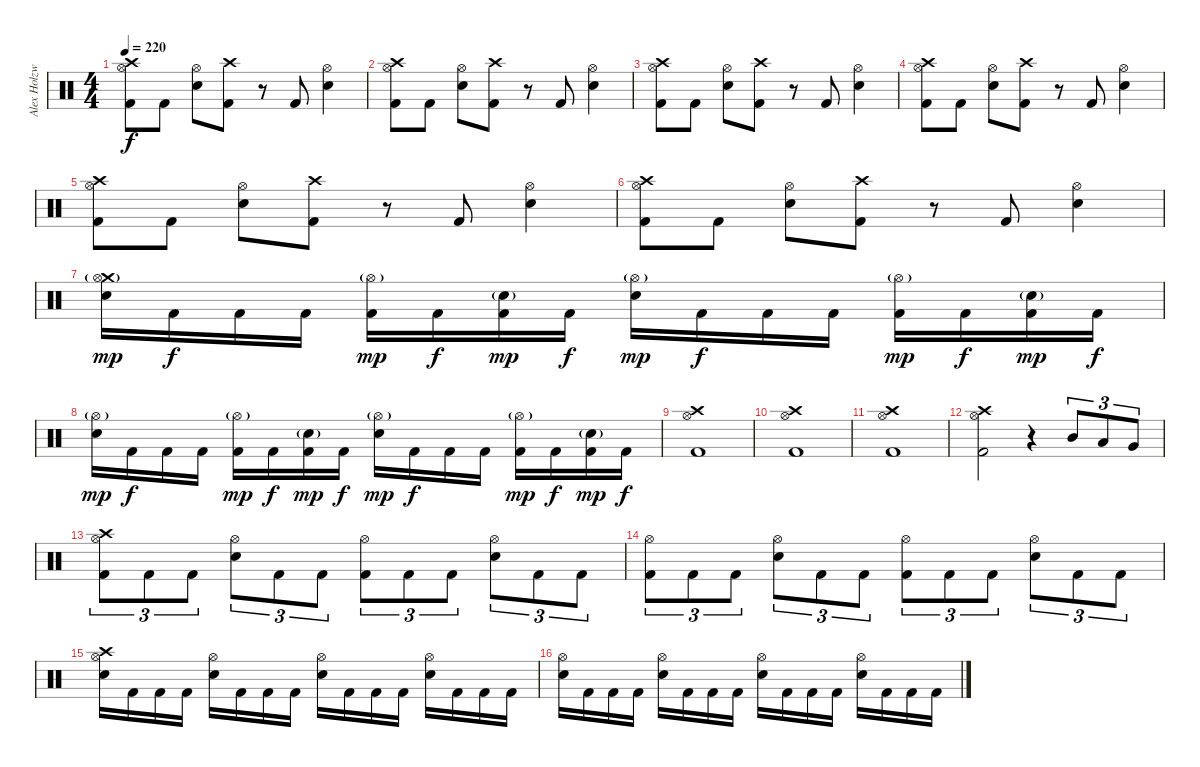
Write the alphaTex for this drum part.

\track ("Alex Holzwarth" "Alex Holzw") {instrument percussion}
\staff {score}
\articulation defaults
\ts (4 4)
\tempo 220
\clef neutral
\ks c
("Crash high (hit)" "Hi-Hat (open)" "Kick (hit) 2").8{dy f} "Kick (hit) 2".8 ("Hi-Hat (open)" "Electric Snare (hit)").8 ("Crash high (hit)" "Kick (hit) 2").8 r.8 "Kick (hit) 2".8 ("Hi-Hat (open)" "Electric Snare (hit)").4 |
("Crash high (hit)" "Hi-Hat (open)" "Kick (hit) 2").8 "Kick (hit) 2".8 ("Hi-Hat (open)" "Electric Snare (hit)").8 ("Crash high (hit)" "Kick (hit) 2").8 r.8 "Kick (hit) 2".8 ("Hi-Hat (open)" "Electric Snare (hit)").4 |
("Crash high (hit)" "Hi-Hat (open)" "Kick (hit) 2").8 "Kick (hit) 2".8 ("Hi-Hat (open)" "Electric Snare (hit)").8 ("Crash high (hit)" "Kick (hit) 2").8 r.8 "Kick (hit) 2".8 ("Hi-Hat (open)" "Electric Snare (hit)").4 |
("Crash high (hit)" "Hi-Hat (open)" "Kick (hit) 2").8 "Kick (hit) 2".8 ("Hi-Hat (open)" "Electric Snare (hit)").8 ("Crash high (hit)" "Kick (hit) 2").8 r.8 "Kick (hit) 2".8 ("Hi-Hat (open)" "Electric Snare (hit)").4 |
("Crash high (hit)" "Hi-Hat (open)" "Kick (hit) 2").8 "Kick (hit) 2".8 ("Hi-Hat (open)" "Electric Snare (hit)").8 ("Crash high (hit)" "Kick (hit) 2").8 r.8 "Kick (hit) 2".8 ("Hi-Hat (open)" "Electric Snare (hit)").4 |
("Crash high (hit)" "Hi-Hat (open)" "Kick (hit) 2").8 "Kick (hit) 2".8 ("Hi-Hat (open)" "Electric Snare (hit)").8 ("Crash high (hit)" "Kick (hit) 2").8 r.8 "Kick (hit) 2".8 ("Hi-Hat (open)" "Electric Snare (hit)").4 |
("Crash medium (hit)" "Hi-Hat (open)"{g} "Electric Snare (hit)").16{dy mp} "Kick (hit) 2".16{dy f} "Kick (hit) 2".16 "Kick (hit) 2".16 ("Hi-Hat (open)"{g} "Kick (hit) 2").16{dy mp} "Kick (hit) 2".16{dy f} ("Electric Snare (hit)"{g} "Kick (hit) 2").16{dy mp} "Kick (hit) 2".16{dy f} ("Hi-Hat (open)"{g} "Electric Snare (hit)").16{dy mp} "Kick (hit) 2".16{dy f} "Kick (hit) 2".16 "Kick (hit) 2".16 ("Hi-Hat (open)"{g} "Kick (hit) 2").16{dy mp} "Kick (hit) 2".16{dy f} ("Electric Snare (hit)"{g} "Kick (hit) 2").16{dy mp} "Kick (hit) 2".16{dy f} |
("Hi-Hat (open)"{g} "Electric Snare (hit)").16{dy mp} "Kick (hit) 2".16{dy f} "Kick (hit) 2".16 "Kick (hit) 2".16 ("Hi-Hat (open)"{g} "Kick (hit) 2").16{dy mp} "Kick (hit) 2".16{dy f} ("Electric Snare (hit)"{g} "Kick (hit) 2").16{dy mp} "Kick (hit) 2".16{dy f} ("Hi-Hat (open)"{g} "Electric Snare (hit)").16{dy mp} "Kick (hit) 2".16{dy f} "Kick (hit) 2".16 "Kick (hit) 2".16 ("Hi-Hat (open)"{g} "Kick (hit) 2").16{dy mp} "Kick (hit) 2".16{dy f} ("Electric Snare (hit)"{g} "Kick (hit) 2").16{dy mp} "Kick (hit) 2".16{dy f} |
("Crash high (hit)" "Hi-Hat (open)" "Kick (hit) 2").1 |
("Crash high (hit)" "Hi-Hat (open)" "Kick (hit) 2").1 |
("Crash high (hit)" "Hi-Hat (open)" "Kick (hit) 2").1 |
("Crash high (hit)" "Hi-Hat (open)" "Kick (hit) 2").2 r.4 "Mid Tom (hit)".8{tu (3 2)} "Low Tom (hit)".8{tu (3 2)} "Very Low Tom (hit)".8{tu (3 2)} |
("Crash high (hit)" "Hi-Hat (open)" "Kick (hit) 2").8{tu (3 2)} "Kick (hit) 2".8{tu (3 2)} "Kick (hit) 2".8{tu (3 2)} ("Hi-Hat (open)" "Electric Snare (hit)").8{tu (3 2)} "Kick (hit) 2".8{tu (3 2)} "Kick (hit) 2".8{tu (3 2)} ("Hi-Hat (open)" "Kick (hit) 2").8{tu (3 2)} "Kick (hit) 2".8{tu (3 2)} "Kick (hit) 2".8{tu (3 2)} ("Hi-Hat (open)" "Electric Snare (hit)").8{tu (3 2)} "Kick (hit) 2".8{tu (3 2)} "Kick (hit) 2".8{tu (3 2)} |
("Hi-Hat (open)" "Kick (hit) 2").8{tu (3 2)} "Kick (hit) 2".8{tu (3 2)} "Kick (hit) 2".8{tu (3 2)} ("Hi-Hat (open)" "Electric Snare (hit)").8{tu (3 2)} "Kick (hit) 2".8{tu (3 2)} "Kick (hit) 2".8{tu (3 2)} ("Hi-Hat (open)" "Kick (hit) 2").8{tu (3 2)} "Kick (hit) 2".8{tu (3 2)} "Kick (hit) 2".8{tu (3 2)} ("Hi-Hat (open)" "Electric Snare (hit)").8{tu (3 2)} "Kick (hit) 2".8{tu (3 2)} "Kick (hit) 2".8{tu (3 2)} |
("Crash high (hit)" "Hi-Hat (open)" "Electric Snare (hit)").16 "Kick (hit) 2".16 "Kick (hit) 2".16 "Kick (hit) 2".16 ("Hi-Hat (open)" "Electric Snare (hit)").16 "Kick (hit) 2".16 "Kick (hit) 2".16 "Kick (hit) 2".16 ("Hi-Hat (open)" "Electric Snare (hit)").16 "Kick (hit) 2".16 "Kick (hit) 2".16 "Kick (hit) 2".16 ("Hi-Hat (open)" "Electric Snare (hit)").16 "Kick (hit) 2".16 "Kick (hit) 2".16 "Kick (hit) 2".16 |
("Hi-Hat (open)" "Electric Snare (hit)").16 "Kick (hit) 2".16 "Kick (hit) 2".16 "Kick (hit) 2".16 ("Hi-Hat (open)" "Electric Snare (hit)").16 "Kick (hit) 2".16 "Kick (hit) 2".16 "Kick (hit) 2".16 ("Hi-Hat (open)" "Electric Snare (hit)").16 "Kick (hit) 2".16 "Kick (hit) 2".16 "Kick (hit) 2".16 ("Hi-Hat (open)" "Electric Snare (hit)").16 "Kick (hit) 2".16 "Kick (hit) 2".16 "Kick (hit) 2".16
